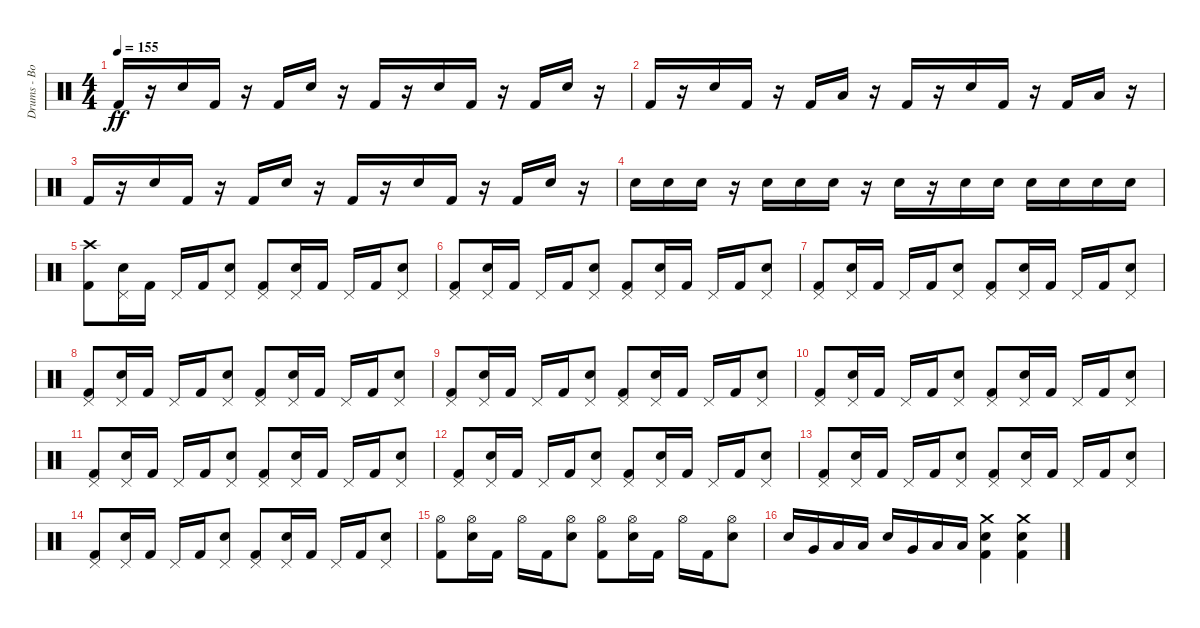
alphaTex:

\track ("Drums - Bobby Schayer" "Drums - Bo") {instrument percussion}
\staff {score}
\articulation defaults
\ts (4 4)
\tempo 155
\clef neutral
\ks c "Kick (hit) 2".16{dy ff}
r.16 "Electric Snare (hit)".16 "Kick (hit) 2".16 r.16 "Kick (hit) 2".16 "Electric Snare (hit)".16 r.16 "Kick (hit) 2".16 r.16 "Electric Snare (hit)".16 "Kick (hit) 2".16 r.16 "Kick (hit) 2".16 "Electric Snare (hit)".16 r.16 |
"Kick (hit) 2".16 r.16 "Electric Snare (hit)".16 "Kick (hit) 2".16 r.16 "Kick (hit) 2".16 "Low Tom (hit)".16 r.16 "Kick (hit) 2".16 r.16 "Electric Snare (hit)".16 "Kick (hit) 2".16 r.16 "Kick (hit) 2".16 "Low Tom (hit)".16 r.16 |
"Kick (hit) 2".16 r.16 "Electric Snare (hit)".16 "Kick (hit) 2".16 r.16 "Kick (hit) 2".16 "Electric Snare (hit)".16 r.16 "Kick (hit) 2".16 r.16 "Electric Snare (hit)".16 "Kick (hit) 2".16 r.16 "Kick (hit) 2".16 "Electric Snare (hit)".16 r.16 |
"Electric Snare (hit)".16 "Electric Snare (hit)".16 "Electric Snare (hit)".16 r.16 "Electric Snare (hit)".16 "Electric Snare (hit)".16 "Electric Snare (hit)".16 r.16 "Electric Snare (hit)".16 r.16 "Electric Snare (hit)".16 "Electric Snare (hit)".16 "Electric Snare (hit)".16 "Electric Snare (hit)".16 "Electric Snare (hit)".16 "Electric Snare (hit)".16 |
("Kick (hit) 2" "Crash high (hit)").8 ("Electric Snare (hit)" "Pedal Hi-Hat (hit)").16 "Kick (hit) 2".16 "Pedal Hi-Hat (hit)".16 "Kick (hit) 2".16 ("Electric Snare (hit)" "Pedal Hi-Hat (hit)").8 ("Kick (hit) 2" "Pedal Hi-Hat (hit)").8 ("Electric Snare (hit)" "Pedal Hi-Hat (hit)").16 "Kick (hit) 2".16 "Pedal Hi-Hat (hit)".16 "Kick (hit) 2".16 ("Electric Snare (hit)" "Pedal Hi-Hat (hit)").8 |
("Kick (hit) 2" "Pedal Hi-Hat (hit)").8 ("Electric Snare (hit)" "Pedal Hi-Hat (hit)").16 "Kick (hit) 2".16 "Pedal Hi-Hat (hit)".16 "Kick (hit) 2".16 ("Electric Snare (hit)" "Pedal Hi-Hat (hit)").8 ("Kick (hit) 2" "Pedal Hi-Hat (hit)").8 ("Electric Snare (hit)" "Pedal Hi-Hat (hit)").16 "Kick (hit) 2".16 "Pedal Hi-Hat (hit)".16 "Kick (hit) 2".16 ("Electric Snare (hit)" "Pedal Hi-Hat (hit)").8 |
("Kick (hit) 2" "Pedal Hi-Hat (hit)").8 ("Electric Snare (hit)" "Pedal Hi-Hat (hit)").16 "Kick (hit) 2".16 "Pedal Hi-Hat (hit)".16 "Kick (hit) 2".16 ("Electric Snare (hit)" "Pedal Hi-Hat (hit)").8 ("Kick (hit) 2" "Pedal Hi-Hat (hit)").8 ("Electric Snare (hit)" "Pedal Hi-Hat (hit)").16 "Kick (hit) 2".16 "Pedal Hi-Hat (hit)".16 "Kick (hit) 2".16 ("Electric Snare (hit)" "Pedal Hi-Hat (hit)").8 |
("Kick (hit) 2" "Pedal Hi-Hat (hit)").8 ("Electric Snare (hit)" "Pedal Hi-Hat (hit)").16 "Kick (hit) 2".16 "Pedal Hi-Hat (hit)".16 "Kick (hit) 2".16 ("Electric Snare (hit)" "Pedal Hi-Hat (hit)").8 ("Kick (hit) 2" "Pedal Hi-Hat (hit)").8 ("Electric Snare (hit)" "Pedal Hi-Hat (hit)").16 "Kick (hit) 2".16 "Pedal Hi-Hat (hit)".16 "Kick (hit) 2".16 ("Electric Snare (hit)" "Pedal Hi-Hat (hit)").8 |
("Kick (hit) 2" "Pedal Hi-Hat (hit)").8 ("Electric Snare (hit)" "Pedal Hi-Hat (hit)").16 "Kick (hit) 2".16 "Pedal Hi-Hat (hit)".16 "Kick (hit) 2".16 ("Electric Snare (hit)" "Pedal Hi-Hat (hit)").8 ("Kick (hit) 2" "Pedal Hi-Hat (hit)").8 ("Electric Snare (hit)" "Pedal Hi-Hat (hit)").16 "Kick (hit) 2".16 "Pedal Hi-Hat (hit)".16 "Kick (hit) 2".16 ("Electric Snare (hit)" "Pedal Hi-Hat (hit)").8 |
("Kick (hit) 2" "Pedal Hi-Hat (hit)").8 ("Electric Snare (hit)" "Pedal Hi-Hat (hit)").16 "Kick (hit) 2".16 "Pedal Hi-Hat (hit)".16 "Kick (hit) 2".16 ("Electric Snare (hit)" "Pedal Hi-Hat (hit)").8 ("Kick (hit) 2" "Pedal Hi-Hat (hit)").8 ("Electric Snare (hit)" "Pedal Hi-Hat (hit)").16 "Kick (hit) 2".16 "Pedal Hi-Hat (hit)".16 "Kick (hit) 2".16 ("Electric Snare (hit)" "Pedal Hi-Hat (hit)").8 |
("Kick (hit) 2" "Pedal Hi-Hat (hit)").8 ("Electric Snare (hit)" "Pedal Hi-Hat (hit)").16 "Kick (hit) 2".16 "Pedal Hi-Hat (hit)".16 "Kick (hit) 2".16 ("Electric Snare (hit)" "Pedal Hi-Hat (hit)").8 ("Kick (hit) 2" "Pedal Hi-Hat (hit)").8 ("Electric Snare (hit)" "Pedal Hi-Hat (hit)").16 "Kick (hit) 2".16 "Pedal Hi-Hat (hit)".16 "Kick (hit) 2".16 ("Electric Snare (hit)" "Pedal Hi-Hat (hit)").8 |
("Kick (hit) 2" "Pedal Hi-Hat (hit)").8 ("Electric Snare (hit)" "Pedal Hi-Hat (hit)").16 "Kick (hit) 2".16 "Pedal Hi-Hat (hit)".16 "Kick (hit) 2".16 ("Electric Snare (hit)" "Pedal Hi-Hat (hit)").8 ("Kick (hit) 2" "Pedal Hi-Hat (hit)").8 ("Electric Snare (hit)" "Pedal Hi-Hat (hit)").16 "Kick (hit) 2".16 "Pedal Hi-Hat (hit)".16 "Kick (hit) 2".16 ("Electric Snare (hit)" "Pedal Hi-Hat (hit)").8 |
("Kick (hit) 2" "Pedal Hi-Hat (hit)").8 ("Electric Snare (hit)" "Pedal Hi-Hat (hit)").16 "Kick (hit) 2".16 "Pedal Hi-Hat (hit)".16 "Kick (hit) 2".16 ("Electric Snare (hit)" "Pedal Hi-Hat (hit)").8 ("Kick (hit) 2" "Pedal Hi-Hat (hit)").8 ("Electric Snare (hit)" "Pedal Hi-Hat (hit)").16 "Kick (hit) 2".16 "Pedal Hi-Hat (hit)".16 "Kick (hit) 2".16 ("Electric Snare (hit)" "Pedal Hi-Hat (hit)").8 |
("Kick (hit) 2" "Pedal Hi-Hat (hit)").8 ("Electric Snare (hit)" "Pedal Hi-Hat (hit)").16 "Kick (hit) 2".16 "Pedal Hi-Hat (hit)".16 "Kick (hit) 2".16 ("Electric Snare (hit)" "Pedal Hi-Hat (hit)").8 ("Kick (hit) 2" "Pedal Hi-Hat (hit)").8 ("Electric Snare (hit)" "Pedal Hi-Hat (hit)").16 "Kick (hit) 2".16 "Pedal Hi-Hat (hit)".16 "Kick (hit) 2".16 ("Electric Snare (hit)" "Pedal Hi-Hat (hit)").8 |
("Kick (hit) 2" "Hi-Hat (open)").8 ("Electric Snare (hit)" "Hi-Hat (open)").16 "Kick (hit) 2".16 "Hi-Hat (open)".16 "Kick (hit) 2".16 ("Electric Snare (hit)" "Hi-Hat (open)").8 ("Kick (hit) 2" "Hi-Hat (open)").8 ("Electric Snare (hit)" "Hi-Hat (open)").16 "Kick (hit) 2".16 "Hi-Hat (open)".16 "Kick (hit) 2".16 ("Electric Snare (hit)" "Hi-Hat (open)").8 |
"Electric Snare (hit)".16 "Very Low Tom (hit)".16 "Low Tom (hit)".16 "Low Tom (hit)".16 "Electric Snare (hit)".16 "Very Low Tom (hit)".16 "Low Tom (hit)".16 "Low Tom (hit)".16 ("Electric Snare (hit)" "Kick (hit) 2" "Crash medium (hit)").4 ("Electric Snare (hit)" "Kick (hit) 2" "Crash medium (hit)").4
